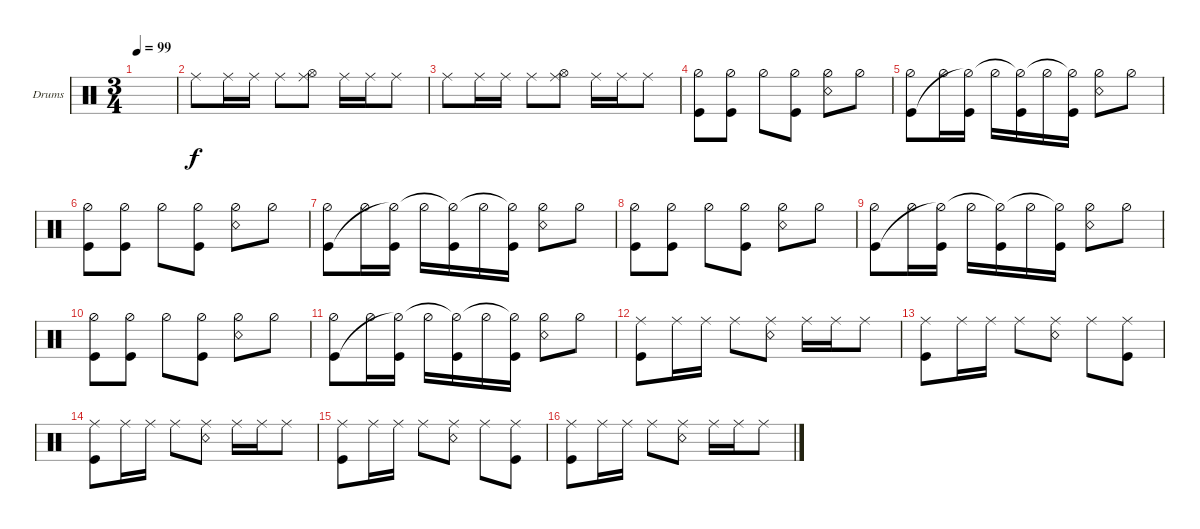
\defaultSystemsLayout 4
\bracketExtendMode groupsimilarinstruments
\firstSystemTrackNameOrientation horizontal
\otherSystemsTrackNameOrientation horizontal
\track ("Drumkit" "Drums") {instrument percussion}
\staff {score}
\articulation defaults
\ts (3 4)
\tempo 99
\clef neutral
\ks c
|
"Ride (middle)".8 "Ride (middle)".16 "Ride (middle)".16 "Ride (middle)".8 ("Ride (middle)" "Hi-Hat (open)").8 "Ride (middle)".16 "Ride (middle)".16 "Ride (middle)".8 |
"Ride (middle)".8 "Ride (middle)".16 "Ride (middle)".16 "Ride (middle)".8 ("Ride (middle)" "Hi-Hat (open)").8 "Ride (middle)".16 "Ride (middle)".16 "Ride (middle)".8 |
("Hi-Hat (half)" "Kick (hit)").8 ("Hi-Hat (half)" "Kick (hit)").8 "Hi-Hat (half)".8 ("Hi-Hat (half)" "Kick (hit)").8 ("Hi-Hat (half)" "Snare (rim shot)").8 "Hi-Hat (half)".8 |
("Hi-Hat (half)" "Kick (hit)").8 "Hi-Hat (half)".16 ("Kick (hit)" "Hi-Hat (half)"{t}).16 "Hi-Hat (half)".16 ("Kick (hit)" "Hi-Hat (half)"{t}).16 "Hi-Hat (half)".16 ("Kick (hit)" "Hi-Hat (half)"{t}).16 ("Snare (rim shot)" "Hi-Hat (half)").8 "Hi-Hat (half)".8 |
("Hi-Hat (half)" "Kick (hit)").8 ("Hi-Hat (half)" "Kick (hit)").8 "Hi-Hat (half)".8 ("Hi-Hat (half)" "Kick (hit)").8 ("Hi-Hat (half)" "Snare (rim shot)").8 "Hi-Hat (half)".8 |
("Hi-Hat (half)" "Kick (hit)").8 "Hi-Hat (half)".16 ("Kick (hit)" "Hi-Hat (half)"{t}).16 "Hi-Hat (half)".16 ("Kick (hit)" "Hi-Hat (half)"{t}).16 "Hi-Hat (half)".16 ("Kick (hit)" "Hi-Hat (half)"{t}).16 ("Snare (rim shot)" "Hi-Hat (half)").8 "Hi-Hat (half)".8 |
("Hi-Hat (half)" "Kick (hit)").8 ("Hi-Hat (half)" "Kick (hit)").8 "Hi-Hat (half)".8 ("Hi-Hat (half)" "Kick (hit)").8 ("Hi-Hat (half)" "Snare (rim shot)").8 "Hi-Hat (half)".8 |
("Hi-Hat (half)" "Kick (hit)").8 "Hi-Hat (half)".16 ("Kick (hit)" "Hi-Hat (half)"{t}).16 "Hi-Hat (half)".16 ("Kick (hit)" "Hi-Hat (half)"{t}).16 "Hi-Hat (half)".16 ("Kick (hit)" "Hi-Hat (half)"{t}).16 ("Snare (rim shot)" "Hi-Hat (half)").8 "Hi-Hat (half)".8 |
("Hi-Hat (half)" "Kick (hit)").8 ("Hi-Hat (half)" "Kick (hit)").8 "Hi-Hat (half)".8 ("Hi-Hat (half)" "Kick (hit)").8 ("Hi-Hat (half)" "Snare (rim shot)").8 "Hi-Hat (half)".8 |
("Hi-Hat (half)" "Kick (hit)").8 "Hi-Hat (half)".16 ("Kick (hit)" "Hi-Hat (half)"{t}).16 "Hi-Hat (half)".16 ("Kick (hit)" "Hi-Hat (half)"{t}).16 "Hi-Hat (half)".16 ("Kick (hit)" "Hi-Hat (half)"{t}).16 ("Snare (rim shot)" "Hi-Hat (half)").8 "Hi-Hat (half)".8 |
("Ride (middle)" "Kick (hit)").8 "Ride (middle)".16 "Ride (middle)".16 "Ride (middle)".8 ("Ride (middle)" "Snare (rim shot)").8 "Ride (middle)".16 "Ride (middle)".16 "Ride (middle)".8 |
("Ride (middle)" "Kick (hit)").8 "Ride (middle)".16 "Ride (middle)".16 "Ride (middle)".8 ("Ride (middle)" "Snare (rim shot)").8 "Ride (middle)".8 ("Ride (middle)" "Kick (hit)").8 |
("Ride (middle)" "Kick (hit)").8 "Ride (middle)".16 "Ride (middle)".16 "Ride (middle)".8 ("Ride (middle)" "Snare (rim shot)").8 "Ride (middle)".16 "Ride (middle)".16 "Ride (middle)".8 |
("Ride (middle)" "Kick (hit)").8 "Ride (middle)".16 "Ride (middle)".16 "Ride (middle)".8 ("Ride (middle)" "Snare (rim shot)").8 "Ride (middle)".8 ("Ride (middle)" "Kick (hit)").8 |
("Ride (middle)" "Kick (hit)").8 "Ride (middle)".16 "Ride (middle)".16 "Ride (middle)".8 ("Ride (middle)" "Snare (rim shot)").8 "Ride (middle)".16 "Ride (middle)".16 "Ride (middle)".8
